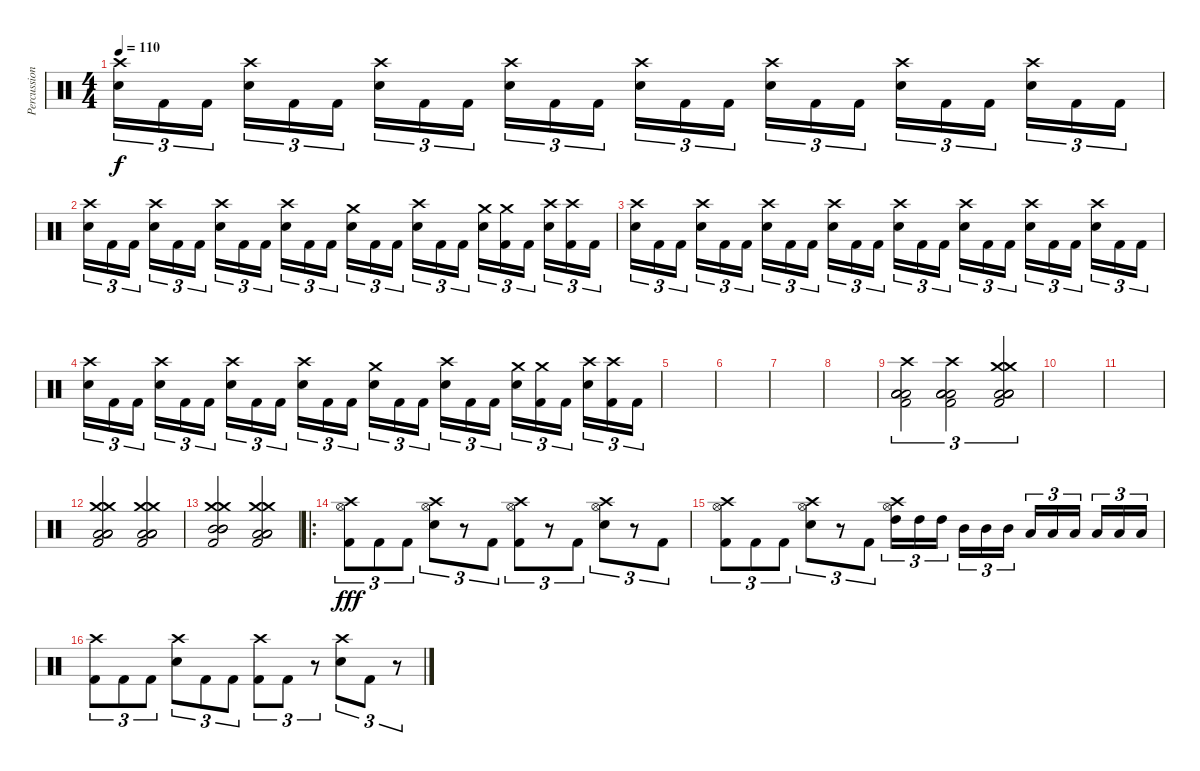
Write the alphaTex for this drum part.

\track ("Percussion" "Percussion") {instrument percussion}
\staff {score}
\articulation defaults
\ts (4 4)
\tempo 110
\clef neutral
\ks c
("Crash high (hit)" "Snare (hit) 2").16{tu (3 2) dy f} "Kick (hit) 2".16{tu (3 2)} "Kick (hit) 2".16{tu (3 2)} ("Crash high (hit)" "Snare (hit) 2").16{tu (3 2)} "Kick (hit) 2".16{tu (3 2)} "Kick (hit) 2".16{tu (3 2)} ("Crash high (hit)" "Snare (hit) 2").16{tu (3 2)} "Kick (hit) 2".16{tu (3 2)} "Kick (hit) 2".16{tu (3 2)} ("Crash high (hit)" "Snare (hit) 2").16{tu (3 2)} "Kick (hit) 2".16{tu (3 2)} "Kick (hit) 2".16{tu (3 2)} ("Crash high (hit)" "Snare (hit) 2").16{tu (3 2)} "Kick (hit) 2".16{tu (3 2)} "Kick (hit) 2".16{tu (3 2)} ("Crash high (hit)" "Snare (hit) 2").16{tu (3 2)} "Kick (hit) 2".16{tu (3 2)} "Kick (hit) 2".16{tu (3 2)} ("Crash high (hit)" "Snare (hit) 2").16{tu (3 2)} "Kick (hit) 2".16{tu (3 2)} "Kick (hit) 2".16{tu (3 2)} ("Crash high (hit)" "Snare (hit) 2").16{tu (3 2)} "Kick (hit) 2".16{tu (3 2)} "Kick (hit) 2".16{tu (3 2)} |
("Crash high (hit)" "Snare (hit) 2").16{tu (3 2)} "Kick (hit) 2".16{tu (3 2)} "Kick (hit) 2".16{tu (3 2)} ("Crash high (hit)" "Snare (hit) 2").16{tu (3 2)} "Kick (hit) 2".16{tu (3 2)} "Kick (hit) 2".16{tu (3 2)} ("Crash high (hit)" "Snare (hit) 2").16{tu (3 2)} "Kick (hit) 2".16{tu (3 2)} "Kick (hit) 2".16{tu (3 2)} ("Crash high (hit)" "Snare (hit) 2").16{tu (3 2)} "Kick (hit) 2".16{tu (3 2)} "Kick (hit) 2".16{tu (3 2)} ("Crash medium (hit)" "Snare (hit) 2").16{tu (3 2)} "Kick (hit) 2".16{tu (3 2)} "Kick (hit) 2".16{tu (3 2)} ("Crash high (hit)" "Snare (hit) 2").16{tu (3 2)} "Kick (hit) 2".16{tu (3 2)} "Kick (hit) 2".16{tu (3 2)} ("Crash medium (hit)" "Snare (hit) 2").16{tu (3 2)} ("Crash medium (hit)" "Kick (hit) 2").16{tu (3 2)} "Kick (hit) 2".16{tu (3 2)} ("Crash high (hit)" "Snare (hit) 2").16{tu (3 2)} ("Crash high (hit)" "Kick (hit) 2").16{tu (3 2)} "Kick (hit) 2".16{tu (3 2)} |
("Crash high (hit)" "Snare (hit) 2").16{tu (3 2)} "Kick (hit) 2".16{tu (3 2)} "Kick (hit) 2".16{tu (3 2)} ("Crash high (hit)" "Snare (hit) 2").16{tu (3 2)} "Kick (hit) 2".16{tu (3 2)} "Kick (hit) 2".16{tu (3 2)} ("Crash high (hit)" "Snare (hit) 2").16{tu (3 2)} "Kick (hit) 2".16{tu (3 2)} "Kick (hit) 2".16{tu (3 2)} ("Crash high (hit)" "Snare (hit) 2").16{tu (3 2)} "Kick (hit) 2".16{tu (3 2)} "Kick (hit) 2".16{tu (3 2)} ("Crash high (hit)" "Snare (hit) 2").16{tu (3 2)} "Kick (hit) 2".16{tu (3 2)} "Kick (hit) 2".16{tu (3 2)} ("Crash high (hit)" "Snare (hit) 2").16{tu (3 2)} "Kick (hit) 2".16{tu (3 2)} "Kick (hit) 2".16{tu (3 2)} ("Crash high (hit)" "Snare (hit) 2").16{tu (3 2)} "Kick (hit) 2".16{tu (3 2)} "Kick (hit) 2".16{tu (3 2)} ("Crash high (hit)" "Snare (hit) 2").16{tu (3 2)} "Kick (hit) 2".16{tu (3 2)} "Kick (hit) 2".16{tu (3 2)} |
("Crash high (hit)" "Snare (hit) 2").16{tu (3 2)} "Kick (hit) 2".16{tu (3 2)} "Kick (hit) 2".16{tu (3 2)} ("Crash high (hit)" "Snare (hit) 2").16{tu (3 2)} "Kick (hit) 2".16{tu (3 2)} "Kick (hit) 2".16{tu (3 2)} ("Crash high (hit)" "Snare (hit) 2").16{tu (3 2)} "Kick (hit) 2".16{tu (3 2)} "Kick (hit) 2".16{tu (3 2)} ("Crash high (hit)" "Snare (hit) 2").16{tu (3 2)} "Kick (hit) 2".16{tu (3 2)} "Kick (hit) 2".16{tu (3 2)} ("Crash medium (hit)" "Snare (hit) 2").16{tu (3 2)} "Kick (hit) 2".16{tu (3 2)} "Kick (hit) 2".16{tu (3 2)} ("Crash high (hit)" "Snare (hit) 2").16{tu (3 2)} "Kick (hit) 2".16{tu (3 2)} "Kick (hit) 2".16{tu (3 2)} ("Crash medium (hit)" "Snare (hit) 2").16{tu (3 2)} ("Crash medium (hit)" "Kick (hit) 2").16{tu (3 2)} "Kick (hit) 2".16{tu (3 2)} ("Crash high (hit)" "Snare (hit) 2").16{tu (3 2)} ("Crash high (hit)" "Kick (hit) 2").16{tu (3 2)} "Kick (hit) 2".16{tu (3 2)} |
|
|
|
|
("Crash high (hit)" "Low Tom (hit)" "Low Tom (hit)" "Low Tom (hit)" "Kick (hit) 2").2{tu (3 2)} ("Crash high (hit)" "Low Tom (hit)" "Low Tom (hit)" "Low Tom (hit)" "Kick (hit) 2").2{tu (3 2)} ("Crash medium (hit)" "Crash medium (hit)" "Low Tom (hit)" "Low Tom (hit)" "Low Tom (hit)" "Kick (hit) 2").2{tu (3 2)} |
|
|
("Crash medium (hit)" "Crash medium (hit)" "Low Tom (hit)" "Low Tom (hit)" "Low Tom (hit)" "Kick (hit) 2").2 ("Crash medium (hit)" "Crash medium (hit)" "Low Tom (hit)" "Low Tom (hit)" "Low Tom (hit)" "Kick (hit) 2").2 |
("Crash medium (hit)" "Crash medium (hit)" "Mid Tom (hit)" "Mid Tom (hit)" "Mid Tom (hit)" "Kick (hit) 2").2 ("Crash medium (hit)" "Crash medium (hit)" "Low Tom (hit)" "Low Tom (hit)" "Low Tom (hit)" "Kick (hit) 2").2 |
\ro
("Crash high (hit)" "Hi-Hat (open)" "Kick (hit) 2").8{tu (3 2) dy fff volume 16} "Kick (hit) 2".8{tu (3 2)} "Kick (hit) 2".8{tu (3 2)} ("Crash high (hit)" "Hi-Hat (open)" "Snare (hit) 2").8{tu (3 2)} r.8{tu (3 2)} "Kick (hit) 2".8{tu (3 2)} ("Crash high (hit)" "Hi-Hat (open)" "Kick (hit) 2").8{tu (3 2)} r.8{tu (3 2)} "Kick (hit) 2".8{tu (3 2)} ("Crash high (hit)" "Hi-Hat (open)" "Snare (hit) 2").8{tu (3 2)} r.8{tu (3 2)} "Kick (hit) 2".8{tu (3 2)} |
("Crash high (hit)" "Hi-Hat (open)" "Kick (hit) 2").8{tu (3 2)} "Kick (hit) 2".8{tu (3 2)} "Kick (hit) 2".8{tu (3 2)} ("Crash high (hit)" "Hi-Hat (open)" "Snare (hit) 2").8{tu (3 2)} r.8{tu (3 2)} "Kick (hit) 2".8{tu (3 2)} ("Crash high (hit)" "Hi-Hat (open)" "High Tom (hit)").16{tu (3 2)} "High Tom (hit)".16{tu (3 2)} "High Tom (hit)".16{tu (3 2)} "Mid Tom (hit)".16{tu (3 2)} "Mid Tom (hit)".16{tu (3 2)} "Mid Tom (hit)".16{tu (3 2)} "Low Tom (hit)".16{tu (3 2)} "Low Tom (hit)".16{tu (3 2)} "Low Tom (hit)".16{tu (3 2)} "Low Tom (hit)".16{tu (3 2)} "Low Tom (hit)".16{tu (3 2)} "Low Tom (hit)".16{tu (3 2)} |
("Crash high (hit)" "Kick (hit) 2").8{tu (3 2)} "Kick (hit) 2".8{tu (3 2)} "Kick (hit) 2".8{tu (3 2)} ("Crash high (hit)" "Snare (hit) 2").8{tu (3 2)} "Kick (hit) 2".8{tu (3 2)} "Kick (hit) 2".8{tu (3 2)} ("Crash high (hit)" "Kick (hit) 2").8{tu (3 2)} "Kick (hit) 2".8{tu (3 2)} r.8{tu (3 2)} ("Crash high (hit)" "Snare (hit) 2").8{tu (3 2)} "Kick (hit) 2".8{tu (3 2)} r.8{tu (3 2)}
